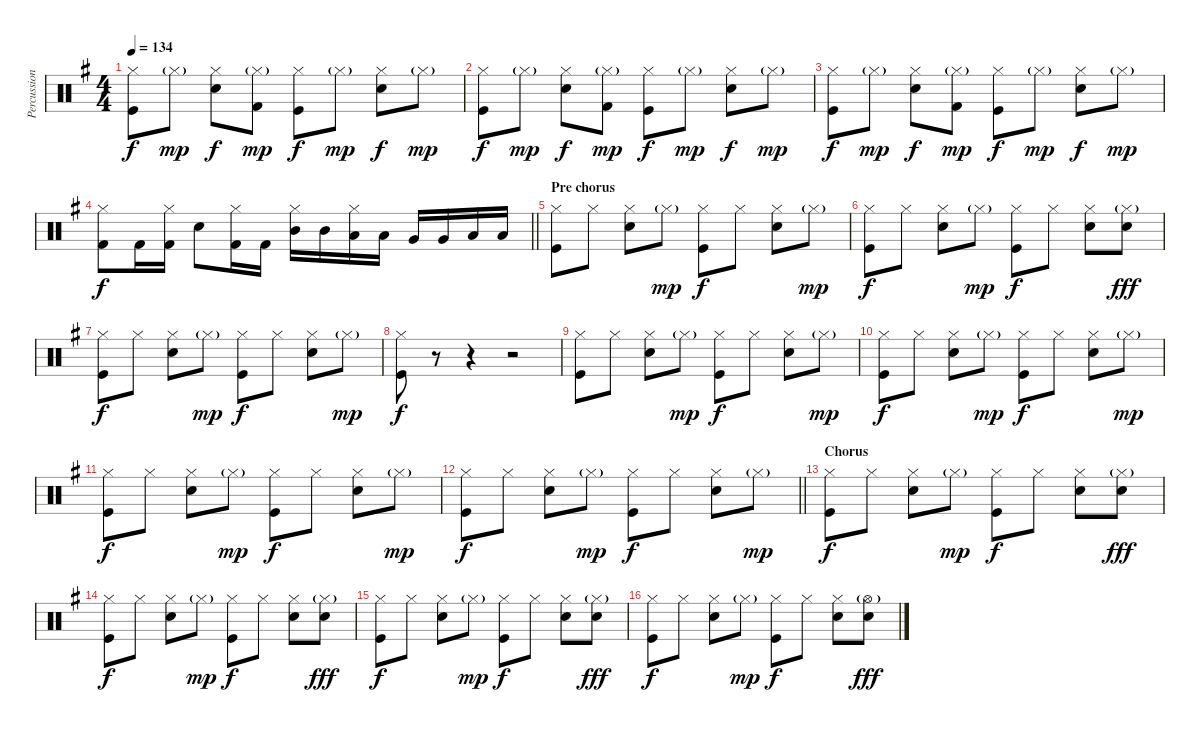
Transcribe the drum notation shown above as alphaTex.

\track ("Percussion" "Percussion") {instrument percussion}
\staff {score}
\articulation defaults
\ts (4 4)
\tempo 134
\clef neutral
\ks g
("Hi-Hat (closed)" "Kick (hit)").8{dy f} "Hi-Hat (closed)"{g}.8{dy mp} ("Hi-Hat (closed)" "Snare (hit) 2").8{dy f} ("Hi-Hat (closed)"{g} "Kick (hit) 2").8{dy mp} ("Hi-Hat (closed)" "Kick (hit)").8{dy f} "Hi-Hat (closed)"{g}.8{dy mp} ("Hi-Hat (closed)" "Snare (hit) 2").8{dy f} "Hi-Hat (closed)"{g}.8{dy mp} |
("Hi-Hat (closed)" "Kick (hit)").8{dy f} "Hi-Hat (closed)"{g}.8{dy mp} ("Hi-Hat (closed)" "Snare (hit) 2").8{dy f} ("Hi-Hat (closed)"{g} "Kick (hit) 2").8{dy mp} ("Hi-Hat (closed)" "Kick (hit)").8{dy f} "Hi-Hat (closed)"{g}.8{dy mp} ("Hi-Hat (closed)" "Snare (hit) 2").8{dy f} "Hi-Hat (closed)"{g}.8{dy mp} |
("Hi-Hat (closed)" "Kick (hit)").8{dy f} "Hi-Hat (closed)"{g}.8{dy mp} ("Hi-Hat (closed)" "Snare (hit) 2").8{dy f} ("Hi-Hat (closed)"{g} "Kick (hit) 2").8{dy mp} ("Hi-Hat (closed)" "Kick (hit)").8{dy f} "Hi-Hat (closed)"{g}.8{dy mp} ("Hi-Hat (closed)" "Snare (hit) 2").8{dy f} "Hi-Hat (closed)"{g}.8{dy mp} |
\barLineRight lightlight
("Hi-Hat (closed)" "Kick (hit) 2").8{dy f} "Kick (hit) 2".16 ("Hi-Hat (closed)" "Kick (hit) 2").16 "Snare (hit) 2".8 ("Hi-Hat (closed)" "Kick (hit) 2").16 "Kick (hit) 2".16 ("Hi-Hat (closed)" "Mid Tom (hit)").16 "Mid Tom (hit)".16 ("Hi-Hat (closed)" "Low Tom (hit)").16 "Low Tom (hit)".16 "Very Low Tom (hit)".16 "Very Low Tom (hit)".16 "Low Floor Tom (hit)".16 "Low Floor Tom (hit)".16 |
\section ("" "Pre chorus")
("Hi-Hat (closed)" "Kick (hit)").8 "Hi-Hat (closed)".8 ("Hi-Hat (closed)" "Snare (hit) 2").8 "Hi-Hat (closed)"{g}.8{dy mp} ("Hi-Hat (closed)" "Kick (hit)").8{dy f} "Hi-Hat (closed)".8 ("Hi-Hat (closed)" "Snare (hit) 2").8 "Hi-Hat (closed)"{g}.8{dy mp} |
("Hi-Hat (closed)" "Kick (hit)").8{dy f} "Hi-Hat (closed)".8 ("Hi-Hat (closed)" "Snare (hit) 2").8 "Hi-Hat (closed)"{g}.8{dy mp} ("Hi-Hat (closed)" "Kick (hit)").8{dy f} "Hi-Hat (closed)".8 ("Hi-Hat (closed)" "Snare (hit) 2").8 ("Hi-Hat (closed)"{g} "Snare (hit) 2").8{dy fff} |
("Hi-Hat (closed)" "Kick (hit)").8{dy f} "Hi-Hat (closed)".8 ("Hi-Hat (closed)" "Snare (hit) 2").8 "Hi-Hat (closed)"{g}.8{dy mp} ("Hi-Hat (closed)" "Kick (hit)").8{dy f} "Hi-Hat (closed)".8 ("Hi-Hat (closed)" "Snare (hit) 2").8 "Hi-Hat (closed)"{g}.8{dy mp} |
("Hi-Hat (closed)" "Kick (hit)").8{dy f} r.8 r.4 r.2 |
("Hi-Hat (closed)" "Kick (hit)").8 "Hi-Hat (closed)".8 ("Hi-Hat (closed)" "Snare (hit) 2").8 "Hi-Hat (closed)"{g}.8{dy mp} ("Hi-Hat (closed)" "Kick (hit)").8{dy f} "Hi-Hat (closed)".8 ("Hi-Hat (closed)" "Snare (hit) 2").8 "Hi-Hat (closed)"{g}.8{dy mp} |
("Hi-Hat (closed)" "Kick (hit)").8{dy f} "Hi-Hat (closed)".8 ("Hi-Hat (closed)" "Snare (hit) 2").8 "Hi-Hat (closed)"{g}.8{dy mp} ("Hi-Hat (closed)" "Kick (hit)").8{dy f} "Hi-Hat (closed)".8 ("Hi-Hat (closed)" "Snare (hit) 2").8 "Hi-Hat (closed)"{g}.8{dy mp} |
("Hi-Hat (closed)" "Kick (hit)").8{dy f} "Hi-Hat (closed)".8 ("Hi-Hat (closed)" "Snare (hit) 2").8 "Hi-Hat (closed)"{g}.8{dy mp} ("Hi-Hat (closed)" "Kick (hit)").8{dy f} "Hi-Hat (closed)".8 ("Hi-Hat (closed)" "Snare (hit) 2").8 "Hi-Hat (closed)"{g}.8{dy mp} |
\barLineRight lightlight
("Hi-Hat (closed)" "Kick (hit)").8{dy f} "Hi-Hat (closed)".8 ("Hi-Hat (closed)" "Snare (hit) 2").8 "Hi-Hat (closed)"{g}.8{dy mp} ("Hi-Hat (closed)" "Kick (hit)").8{dy f} "Hi-Hat (closed)".8 ("Hi-Hat (closed)" "Snare (hit) 2").8 "Hi-Hat (closed)"{g}.8{dy mp} |
\section ("" "Chorus")
("Hi-Hat (closed)" "Kick (hit)").8{dy f} "Hi-Hat (closed)".8 ("Hi-Hat (closed)" "Snare (hit) 2").8 "Hi-Hat (closed)"{g}.8{dy mp} ("Hi-Hat (closed)" "Kick (hit)").8{dy f} "Hi-Hat (closed)".8 ("Hi-Hat (closed)" "Snare (hit) 2").8 ("Hi-Hat (closed)"{g} "Snare (hit) 2").8{dy fff} |
("Hi-Hat (closed)" "Kick (hit)").8{dy f} "Hi-Hat (closed)".8 ("Hi-Hat (closed)" "Snare (hit) 2").8 "Hi-Hat (closed)"{g}.8{dy mp} ("Hi-Hat (closed)" "Kick (hit)").8{dy f} "Hi-Hat (closed)".8 ("Hi-Hat (closed)" "Snare (hit) 2").8 ("Hi-Hat (closed)"{g} "Snare (hit) 2").8{dy fff} |
("Hi-Hat (closed)" "Kick (hit)").8{dy f} "Hi-Hat (closed)".8 ("Hi-Hat (closed)" "Snare (hit) 2").8 "Hi-Hat (closed)"{g}.8{dy mp} ("Hi-Hat (closed)" "Kick (hit)").8{dy f} "Hi-Hat (closed)".8 ("Hi-Hat (closed)" "Snare (hit) 2").8 ("Hi-Hat (closed)"{g} "Snare (hit) 2").8{dy fff} |
("Hi-Hat (closed)" "Kick (hit)").8{dy f} "Hi-Hat (closed)".8 ("Hi-Hat (closed)" "Snare (hit) 2").8 "Hi-Hat (closed)"{g}.8{dy mp} ("Hi-Hat (closed)" "Kick (hit)").8{dy f} "Hi-Hat (closed)".8 ("Hi-Hat (closed)" "Snare (hit) 2").8 ("Hi-Hat (open)"{g} "Snare (hit) 2").8{dy fff}
